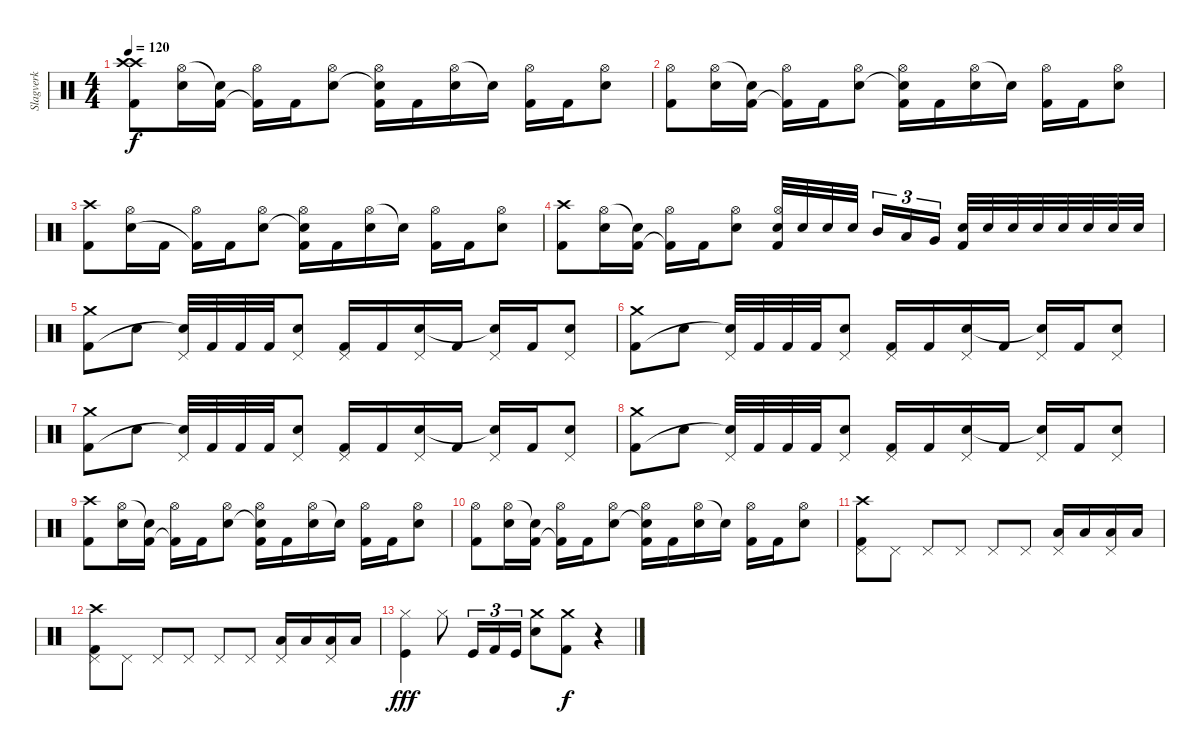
\track ("Slagverk" "Slagverk") {instrument percussion}
\staff {score}
\articulation defaults
\ts (4 4)
\tempo 120
\clef neutral
\ks c
("Crash high (hit)" "Crash high (hit)" "Kick (hit) 2").8{dy f volume 16} ("Hi-Hat (open)" "Electric Snare (hit)").16 ("Snare (hit)"{t} "Kick (hit) 2").16 ("Hi-Hat (open)" "Kick (hit) 2"{t}).16 "Kick (hit) 2".16 ("Hi-Hat (open)" "Electric Snare (hit)").8 ("Hi-Hat (open)" "Snare (hit) 2"{t} "Kick (hit) 2").16 "Kick (hit) 2".16 ("Hi-Hat (open)" "Electric Snare (hit)").16 "Snare (hit) 2"{t}.16 ("Hi-Hat (open)" "Kick (hit) 2").16 "Kick (hit) 2".16 ("Hi-Hat (open)" "Electric Snare (hit)").8 |
("Hi-Hat (open)" "Kick (hit) 2").8 ("Hi-Hat (open)" "Electric Snare (hit)").16 ("Snare (hit)"{t} "Kick (hit) 2").16 ("Hi-Hat (open)" "Kick (hit) 2"{t}).16 "Kick (hit) 2".16 ("Hi-Hat (open)" "Electric Snare (hit)").8 ("Hi-Hat (open)" "Snare (hit) 2"{t} "Kick (hit) 2").16 "Kick (hit) 2".16 ("Hi-Hat (open)" "Electric Snare (hit)").16 "Snare (hit) 2"{t}.16 ("Hi-Hat (open)" "Kick (hit) 2").16 "Kick (hit) 2".16 ("Hi-Hat (open)" "Electric Snare (hit)").8 |
("Crash high (hit)" "Kick (hit) 2").8 ("Hi-Hat (open)" "Electric Snare (hit)").16 "Kick (hit) 2".16 ("Hi-Hat (open)" "Kick (hit) 2"{t}).16 "Kick (hit) 2".16 ("Hi-Hat (open)" "Electric Snare (hit)").8 ("Hi-Hat (open)" "Snare (hit) 2"{t} "Kick (hit) 2").16 "Kick (hit) 2".16 ("Hi-Hat (open)" "Electric Snare (hit)").16 "Snare (hit) 2"{t}.16 ("Hi-Hat (open)" "Kick (hit) 2").16 "Kick (hit) 2".16 ("Hi-Hat (open)" "Electric Snare (hit)").8 |
("Crash high (hit)" "Kick (hit) 2").8 ("Hi-Hat (open)" "Electric Snare (hit)").16 ("Snare (hit)"{t} "Kick (hit) 2").16 ("Hi-Hat (open)" "Kick (hit) 2"{t}).16 "Kick (hit) 2".16 ("Hi-Hat (open)" "Electric Snare (hit)").8 ("Hi-Hat (open)" "Electric Snare (hit)" "Kick (hit) 2").32 "Electric Snare (hit)".32 "Electric Snare (hit)".32 "Electric Snare (hit)".32{beam splitsecondary} "Mid Tom (hit)".16{tu (3 2)} "Low Tom (hit)".16{tu (3 2)} "Very Low Tom (hit)".16{tu (3 2)} ("Electric Snare (hit)" "Kick (hit) 2").32 "Electric Snare (hit)".32 "Electric Snare (hit)".32 "Electric Snare (hit)".32 "Electric Snare (hit)".32 "Electric Snare (hit)".32 "Electric Snare (hit)".32 "Electric Snare (hit)".32 |
("Crash medium (hit)" "Kick (hit) 2").8 "Electric Snare (hit)".8 ("Pedal Hi-Hat (hit)" "Snare (hit)"{t}).32 "Kick (hit) 2".32 "Kick (hit) 2".32 "Kick (hit) 2".32 ("Pedal Hi-Hat (hit)" "Electric Snare (hit)").8 ("Pedal Hi-Hat (hit)" "Kick (hit) 2").16 "Kick (hit) 2".16 ("Pedal Hi-Hat (hit)" "Electric Snare (hit)").16 "Kick (hit) 2".16 ("Pedal Hi-Hat (hit)" "Snare (hit)"{t}).16 "Kick (hit) 2".16 ("Pedal Hi-Hat (hit)" "Electric Snare (hit)").8 |
("Crash medium (hit)" "Kick (hit) 2").8 "Electric Snare (hit)".8 ("Pedal Hi-Hat (hit)" "Snare (hit)"{t}).32 "Kick (hit) 2".32 "Kick (hit) 2".32 "Kick (hit) 2".32 ("Pedal Hi-Hat (hit)" "Electric Snare (hit)").8 ("Pedal Hi-Hat (hit)" "Kick (hit) 2").16 "Kick (hit) 2".16 ("Pedal Hi-Hat (hit)" "Electric Snare (hit)").16 "Kick (hit) 2".16 ("Pedal Hi-Hat (hit)" "Snare (hit)"{t}).16 "Kick (hit) 2".16 ("Pedal Hi-Hat (hit)" "Electric Snare (hit)").8 |
("Crash medium (hit)" "Kick (hit) 2").8 "Electric Snare (hit)".8 ("Pedal Hi-Hat (hit)" "Snare (hit)"{t}).32 "Kick (hit) 2".32 "Kick (hit) 2".32 "Kick (hit) 2".32 ("Pedal Hi-Hat (hit)" "Electric Snare (hit)").8 ("Pedal Hi-Hat (hit)" "Kick (hit) 2").16 "Kick (hit) 2".16 ("Pedal Hi-Hat (hit)" "Electric Snare (hit)").16 "Kick (hit) 2".16 ("Pedal Hi-Hat (hit)" "Snare (hit)"{t}).16 "Kick (hit) 2".16 ("Pedal Hi-Hat (hit)" "Electric Snare (hit)").8 |
("Crash medium (hit)" "Kick (hit) 2").8 "Electric Snare (hit)".8 ("Pedal Hi-Hat (hit)" "Snare (hit)"{t}).32 "Kick (hit) 2".32 "Kick (hit) 2".32 "Kick (hit) 2".32 ("Pedal Hi-Hat (hit)" "Electric Snare (hit)").8 ("Pedal Hi-Hat (hit)" "Kick (hit) 2").16 "Kick (hit) 2".16 ("Pedal Hi-Hat (hit)" "Electric Snare (hit)").16 "Kick (hit) 2".16 ("Pedal Hi-Hat (hit)" "Snare (hit)"{t}).16 "Kick (hit) 2".16 ("Pedal Hi-Hat (hit)" "Electric Snare (hit)").8 |
("Crash high (hit)" "Kick (hit) 2").8 ("Hi-Hat (open)" "Electric Snare (hit)").16 ("Snare (hit)"{t} "Kick (hit) 2").16 ("Hi-Hat (open)" "Kick (hit) 2"{t}).16 "Kick (hit) 2".16 ("Hi-Hat (open)" "Electric Snare (hit)").8 ("Hi-Hat (open)" "Snare (hit) 2"{t} "Kick (hit) 2").16 "Kick (hit) 2".16 ("Hi-Hat (open)" "Electric Snare (hit)").16 "Snare (hit) 2"{t}.16 ("Hi-Hat (open)" "Kick (hit) 2").16 "Kick (hit) 2".16 ("Hi-Hat (open)" "Electric Snare (hit)").8 |
("Hi-Hat (open)" "Kick (hit) 2").8 ("Hi-Hat (open)" "Electric Snare (hit)").16 ("Snare (hit)"{t} "Kick (hit) 2").16 ("Hi-Hat (open)" "Kick (hit) 2"{t}).16 "Kick (hit) 2".16 ("Hi-Hat (open)" "Electric Snare (hit)").8 ("Hi-Hat (open)" "Snare (hit) 2"{t} "Kick (hit) 2").16 "Kick (hit) 2".16 ("Hi-Hat (open)" "Electric Snare (hit)").16 "Snare (hit) 2"{t}.16 ("Hi-Hat (open)" "Kick (hit) 2").16 "Kick (hit) 2".16 ("Hi-Hat (open)" "Electric Snare (hit)").8 |
("Kick (hit) 2" "Crash high (hit)" "Pedal Hi-Hat (hit)").8 "Pedal Hi-Hat (hit)".8 "Pedal Hi-Hat (hit)".8 "Pedal Hi-Hat (hit)".8 "Pedal Hi-Hat (hit)".8 "Pedal Hi-Hat (hit)".8 ("Low Tom (hit)" "Pedal Hi-Hat (hit)").16 "Low Tom (hit)".16 ("Low Floor Tom (hit)" "Pedal Hi-Hat (hit)").16 "Low Floor Tom (hit)".16 |
("Kick (hit) 2" "Crash high (hit)" "Pedal Hi-Hat (hit)").8 "Pedal Hi-Hat (hit)".8 "Pedal Hi-Hat (hit)".8 "Pedal Hi-Hat (hit)".8 "Pedal Hi-Hat (hit)".8 "Pedal Hi-Hat (hit)".8 ("Low Tom (hit)" "Pedal Hi-Hat (hit)").16 "Low Tom (hit)".16 ("Low Floor Tom (hit)" "Pedal Hi-Hat (hit)").16 "Low Floor Tom (hit)".16 |
("Kick (hit)" "Hi-Hat (closed)").4{dy fff} "Hi-Hat (closed)".8 "Kick (hit)".16{tu (3 2)} "Kick (hit) 2".16{tu (3 2)} "Kick (hit)".16{tu (3 2)} ("Snare (hit) 2" "Crash medium (hit)").8 ("Kick (hit) 2" "Crash medium (hit)").8{dy f} r.4
